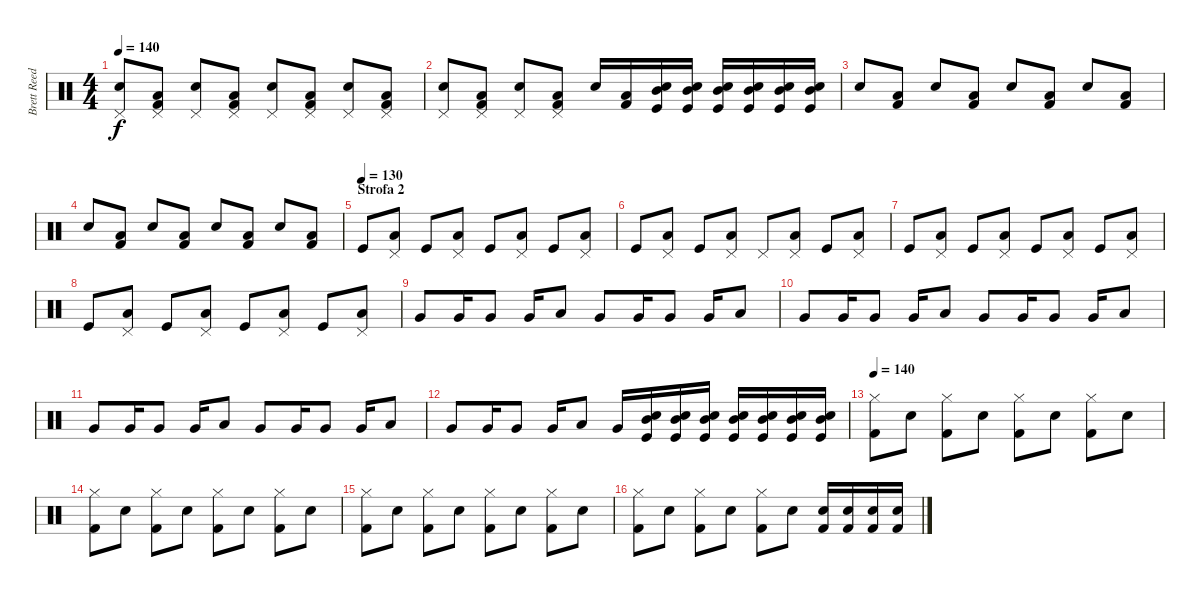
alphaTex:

\track ("Brett Reed (Drums)" "Brett Reed") {instrument percussion}
\staff {score}
\articulation defaults
\ts (4 4)
\tempo 140
\clef neutral
\ks c
("Snare (hit) 2" "Pedal Hi-Hat (hit)").8{dy f} ("Kick (hit) 2" "Low Floor Tom (hit)" "Pedal Hi-Hat (hit)").8 ("Snare (hit) 2" "Pedal Hi-Hat (hit)").8 ("Kick (hit) 2" "Low Floor Tom (hit)" "Pedal Hi-Hat (hit)").8 ("Snare (hit) 2" "Pedal Hi-Hat (hit)").8 ("Kick (hit) 2" "Low Floor Tom (hit)" "Pedal Hi-Hat (hit)").8 ("Snare (hit) 2" "Pedal Hi-Hat (hit)").8 ("Kick (hit) 2" "Low Floor Tom (hit)" "Pedal Hi-Hat (hit)").8 |
("Snare (hit) 2" "Pedal Hi-Hat (hit)").8 ("Kick (hit) 2" "Low Floor Tom (hit)" "Pedal Hi-Hat (hit)").8 ("Snare (hit) 2" "Pedal Hi-Hat (hit)").8 ("Kick (hit) 2" "Low Floor Tom (hit)" "Pedal Hi-Hat (hit)").8 "Snare (hit) 2".16 ("Kick (hit) 2" "Low Floor Tom (hit)").16 ("Mid Tom (hit)" "Snare (hit) 2" "Kick (hit)").16 ("Mid Tom (hit)" "Snare (hit) 2" "Kick (hit)").16 ("Mid Tom (hit)" "Snare (hit) 2" "Kick (hit)").16 ("Mid Tom (hit)" "Snare (hit) 2" "Kick (hit)").16 ("Mid Tom (hit)" "Snare (hit) 2" "Kick (hit)").16 ("Mid Tom (hit)" "Snare (hit) 2" "Kick (hit)").16 |
"Snare (hit) 2".8 ("Kick (hit) 2" "Low Floor Tom (hit)").8 "Snare (hit) 2".8 ("Kick (hit) 2" "Low Floor Tom (hit)").8 "Snare (hit) 2".8 ("Kick (hit) 2" "Low Floor Tom (hit)").8 "Snare (hit) 2".8 ("Kick (hit) 2" "Low Floor Tom (hit)").8 |
"Snare (hit) 2".8 ("Kick (hit) 2" "Low Floor Tom (hit)").8 "Snare (hit) 2".8 ("Kick (hit) 2" "Low Floor Tom (hit)").8 "Snare (hit) 2".8 ("Kick (hit) 2" "Low Floor Tom (hit)").8 "Snare (hit) 2".8 ("Kick (hit) 2" "Low Floor Tom (hit)").8 |
\section ("" "Strofa 2")
\tempo (130)
"Kick (hit)".8 ("Low Floor Tom (hit)" "Pedal Hi-Hat (hit)").8 "Kick (hit)".8 ("Low Floor Tom (hit)" "Pedal Hi-Hat (hit)").8 "Kick (hit)".8 ("Low Floor Tom (hit)" "Pedal Hi-Hat (hit)").8 "Kick (hit)".8 ("Low Floor Tom (hit)" "Pedal Hi-Hat (hit)").8 |
"Kick (hit)".8 ("Low Floor Tom (hit)" "Pedal Hi-Hat (hit)").8 "Kick (hit)".8 ("Low Floor Tom (hit)" "Pedal Hi-Hat (hit)").8 "Pedal Hi-Hat (hit)".8 ("Low Floor Tom (hit)" "Pedal Hi-Hat (hit)").8 "Kick (hit)".8 ("Low Floor Tom (hit)" "Pedal Hi-Hat (hit)").8 |
"Kick (hit)".8 ("Low Floor Tom (hit)" "Pedal Hi-Hat (hit)").8 "Kick (hit)".8 ("Low Floor Tom (hit)" "Pedal Hi-Hat (hit)").8 "Kick (hit)".8 ("Low Floor Tom (hit)" "Pedal Hi-Hat (hit)").8 "Kick (hit)".8 ("Low Floor Tom (hit)" "Pedal Hi-Hat (hit)").8 |
"Kick (hit)".8 ("Low Floor Tom (hit)" "Pedal Hi-Hat (hit)").8 "Kick (hit)".8 ("Low Floor Tom (hit)" "Pedal Hi-Hat (hit)").8 "Kick (hit)".8 ("Low Floor Tom (hit)" "Pedal Hi-Hat (hit)").8 "Kick (hit)".8 ("Low Floor Tom (hit)" "Pedal Hi-Hat (hit)").8 |
"Very Low Tom (hit)".8 "Very Low Tom (hit)".16 "Very Low Tom (hit)".8 "Very Low Tom (hit)".16 "Low Tom (hit)".8 "Very Low Tom (hit)".8 "Very Low Tom (hit)".16 "Very Low Tom (hit)".8 "Very Low Tom (hit)".16 "Low Tom (hit)".8 |
"Very Low Tom (hit)".8 "Very Low Tom (hit)".16 "Very Low Tom (hit)".8 "Very Low Tom (hit)".16 "Low Tom (hit)".8 "Very Low Tom (hit)".8 "Very Low Tom (hit)".16 "Very Low Tom (hit)".8 "Very Low Tom (hit)".16 "Low Tom (hit)".8 |
"Very Low Tom (hit)".8 "Very Low Tom (hit)".16 "Very Low Tom (hit)".8 "Very Low Tom (hit)".16 "Low Tom (hit)".8 "Very Low Tom (hit)".8 "Very Low Tom (hit)".16 "Very Low Tom (hit)".8 "Very Low Tom (hit)".16 "Low Tom (hit)".8 |
"Very Low Tom (hit)".8 "Very Low Tom (hit)".16 "Very Low Tom (hit)".8 "Very Low Tom (hit)".16 "Low Tom (hit)".8 "Very Low Tom (hit)".16 ("Mid Tom (hit)" "Snare (hit) 2" "Kick (hit)").16 ("Mid Tom (hit)" "Snare (hit) 2" "Kick (hit)").16 ("Mid Tom (hit)" "Snare (hit) 2" "Kick (hit)").16 ("Mid Tom (hit)" "Snare (hit) 2" "Kick (hit)").16 ("Mid Tom (hit)" "Snare (hit) 2" "Kick (hit)").16 ("Mid Tom (hit)" "Snare (hit) 2" "Kick (hit)").16 ("Mid Tom (hit)" "Snare (hit) 2" "Kick (hit)").16 |
\tempo 140
("Kick (hit) 2" "Hi-Hat (closed)").8 "Snare (hit) 2".8 ("Kick (hit) 2" "Hi-Hat (closed)").8 "Snare (hit) 2".8 ("Kick (hit) 2" "Hi-Hat (closed)").8 "Snare (hit) 2".8 ("Kick (hit) 2" "Hi-Hat (closed)").8 "Snare (hit) 2".8 |
("Kick (hit) 2" "Hi-Hat (closed)").8 "Snare (hit) 2".8 ("Kick (hit) 2" "Hi-Hat (closed)").8 "Snare (hit) 2".8 ("Kick (hit) 2" "Hi-Hat (closed)").8 "Snare (hit) 2".8 ("Kick (hit) 2" "Hi-Hat (closed)").8 "Snare (hit) 2".8 |
("Kick (hit) 2" "Hi-Hat (closed)").8 "Snare (hit) 2".8 ("Kick (hit) 2" "Hi-Hat (closed)").8 "Snare (hit) 2".8 ("Kick (hit) 2" "Hi-Hat (closed)").8 "Snare (hit) 2".8 ("Kick (hit) 2" "Hi-Hat (closed)").8 "Snare (hit) 2".8 |
("Kick (hit) 2" "Hi-Hat (closed)").8 "Snare (hit) 2".8 ("Kick (hit) 2" "Hi-Hat (closed)").8 "Snare (hit) 2".8 ("Kick (hit) 2" "Hi-Hat (closed)").8 "Snare (hit) 2".8 ("Kick (hit) 2" "Snare (hit) 2").16 ("Kick (hit) 2" "Snare (hit) 2").16 ("Kick (hit) 2" "Snare (hit) 2").16 ("Kick (hit) 2" "Snare (hit) 2").16
